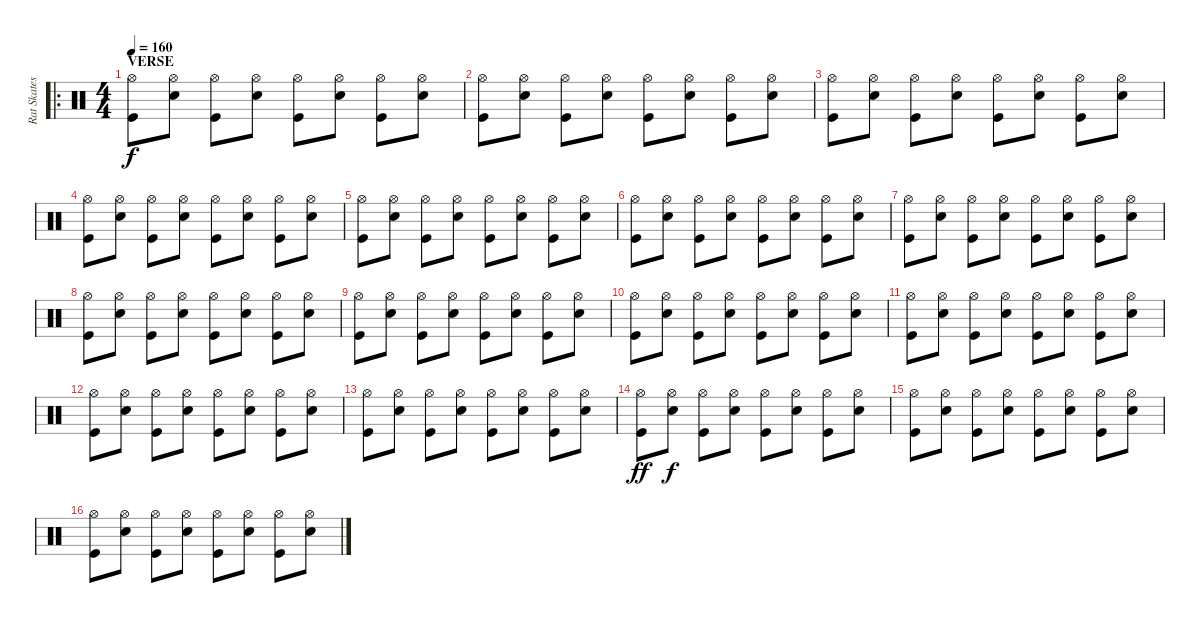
\track ("Rat Skates" "Rat Skates") {instrument percussion}
\staff {score}
\articulation defaults
\ro
\ts (4 4)
\section ("" "VERSE")
\tempo 160
\clef neutral
\ks c
("Hi-Hat (open)" "Kick (hit)").8{dy f} ("Hi-Hat (open)" "Snare (hit) 2").8 ("Hi-Hat (open)" "Kick (hit)").8 ("Hi-Hat (open)" "Snare (hit) 2").8 ("Hi-Hat (open)" "Kick (hit)").8 ("Hi-Hat (open)" "Snare (hit) 2").8 ("Hi-Hat (open)" "Kick (hit)").8 ("Hi-Hat (open)" "Snare (hit) 2").8 |
("Hi-Hat (open)" "Kick (hit)").8 ("Hi-Hat (open)" "Snare (hit) 2").8 ("Hi-Hat (open)" "Kick (hit)").8 ("Hi-Hat (open)" "Snare (hit) 2").8 ("Hi-Hat (open)" "Kick (hit)").8 ("Hi-Hat (open)" "Snare (hit) 2").8 ("Hi-Hat (open)" "Kick (hit)").8 ("Hi-Hat (open)" "Snare (hit) 2").8 |
("Hi-Hat (open)" "Kick (hit)").8 ("Hi-Hat (open)" "Snare (hit) 2").8 ("Hi-Hat (open)" "Kick (hit)").8 ("Hi-Hat (open)" "Snare (hit) 2").8 ("Hi-Hat (open)" "Kick (hit)").8 ("Hi-Hat (open)" "Snare (hit) 2").8 ("Hi-Hat (open)" "Kick (hit)").8 ("Hi-Hat (open)" "Snare (hit) 2").8 |
("Hi-Hat (open)" "Kick (hit)").8 ("Hi-Hat (open)" "Snare (hit) 2").8 ("Hi-Hat (open)" "Kick (hit)").8 ("Hi-Hat (open)" "Snare (hit) 2").8 ("Hi-Hat (open)" "Kick (hit)").8 ("Hi-Hat (open)" "Snare (hit) 2").8 ("Hi-Hat (open)" "Kick (hit)").8 ("Hi-Hat (open)" "Snare (hit) 2").8 |
("Hi-Hat (open)" "Kick (hit)").8 ("Hi-Hat (open)" "Snare (hit) 2").8 ("Hi-Hat (open)" "Kick (hit)").8 ("Hi-Hat (open)" "Snare (hit) 2").8 ("Hi-Hat (open)" "Kick (hit)").8 ("Hi-Hat (open)" "Snare (hit) 2").8 ("Hi-Hat (open)" "Kick (hit)").8 ("Hi-Hat (open)" "Snare (hit) 2").8 |
("Hi-Hat (open)" "Kick (hit)").8 ("Hi-Hat (open)" "Snare (hit) 2").8 ("Hi-Hat (open)" "Kick (hit)").8 ("Hi-Hat (open)" "Snare (hit) 2").8 ("Hi-Hat (open)" "Kick (hit)").8 ("Hi-Hat (open)" "Snare (hit) 2").8 ("Hi-Hat (open)" "Kick (hit)").8 ("Hi-Hat (open)" "Snare (hit) 2").8 |
("Hi-Hat (open)" "Kick (hit)").8 ("Hi-Hat (open)" "Snare (hit) 2").8 ("Hi-Hat (open)" "Kick (hit)").8 ("Hi-Hat (open)" "Snare (hit) 2").8 ("Hi-Hat (open)" "Kick (hit)").8 ("Hi-Hat (open)" "Snare (hit) 2").8 ("Hi-Hat (open)" "Kick (hit)").8 ("Hi-Hat (open)" "Snare (hit) 2").8 |
("Hi-Hat (open)" "Kick (hit)").8 ("Hi-Hat (open)" "Snare (hit) 2").8 ("Hi-Hat (open)" "Kick (hit)").8 ("Hi-Hat (open)" "Snare (hit) 2").8 ("Hi-Hat (open)" "Kick (hit)").8 ("Hi-Hat (open)" "Snare (hit) 2").8 ("Hi-Hat (open)" "Kick (hit)").8 ("Hi-Hat (open)" "Snare (hit) 2").8 |
("Hi-Hat (open)" "Kick (hit)").8 ("Hi-Hat (open)" "Snare (hit) 2").8 ("Hi-Hat (open)" "Kick (hit)").8 ("Hi-Hat (open)" "Snare (hit) 2").8 ("Hi-Hat (open)" "Kick (hit)").8 ("Hi-Hat (open)" "Snare (hit) 2").8 ("Hi-Hat (open)" "Kick (hit)").8 ("Hi-Hat (open)" "Snare (hit) 2").8 |
("Hi-Hat (open)" "Kick (hit)").8 ("Hi-Hat (open)" "Snare (hit) 2").8 ("Hi-Hat (open)" "Kick (hit)").8 ("Hi-Hat (open)" "Snare (hit) 2").8 ("Hi-Hat (open)" "Kick (hit)").8 ("Hi-Hat (open)" "Snare (hit) 2").8 ("Hi-Hat (open)" "Kick (hit)").8 ("Hi-Hat (open)" "Snare (hit) 2").8 |
("Hi-Hat (open)" "Kick (hit)").8 ("Hi-Hat (open)" "Snare (hit) 2").8 ("Hi-Hat (open)" "Kick (hit)").8 ("Hi-Hat (open)" "Snare (hit) 2").8 ("Hi-Hat (open)" "Kick (hit)").8 ("Hi-Hat (open)" "Snare (hit) 2").8 ("Hi-Hat (open)" "Kick (hit)").8 ("Hi-Hat (open)" "Snare (hit) 2").8 |
("Hi-Hat (open)" "Kick (hit)").8 ("Hi-Hat (open)" "Snare (hit) 2").8 ("Hi-Hat (open)" "Kick (hit)").8 ("Hi-Hat (open)" "Snare (hit) 2").8 ("Hi-Hat (open)" "Kick (hit)").8 ("Hi-Hat (open)" "Snare (hit) 2").8 ("Hi-Hat (open)" "Kick (hit)").8 ("Hi-Hat (open)" "Snare (hit) 2").8 |
("Hi-Hat (open)" "Kick (hit)").8 ("Hi-Hat (open)" "Snare (hit) 2").8 ("Hi-Hat (open)" "Kick (hit)").8 ("Hi-Hat (open)" "Snare (hit) 2").8 ("Hi-Hat (open)" "Kick (hit)").8 ("Hi-Hat (open)" "Snare (hit) 2").8 ("Hi-Hat (open)" "Kick (hit)").8 ("Hi-Hat (open)" "Snare (hit) 2").8 |
("Hi-Hat (open)" "Kick (hit)").8{dy ff} ("Hi-Hat (open)" "Snare (hit) 2").8{dy f} ("Hi-Hat (open)" "Kick (hit)").8 ("Hi-Hat (open)" "Snare (hit) 2").8 ("Hi-Hat (open)" "Kick (hit)").8 ("Hi-Hat (open)" "Snare (hit) 2").8 ("Hi-Hat (open)" "Kick (hit)").8 ("Hi-Hat (open)" "Snare (hit) 2").8 |
("Hi-Hat (open)" "Kick (hit)").8 ("Hi-Hat (open)" "Snare (hit) 2").8 ("Hi-Hat (open)" "Kick (hit)").8 ("Hi-Hat (open)" "Snare (hit) 2").8 ("Hi-Hat (open)" "Kick (hit)").8 ("Hi-Hat (open)" "Snare (hit) 2").8 ("Hi-Hat (open)" "Kick (hit)").8 ("Hi-Hat (open)" "Snare (hit) 2").8 |
("Hi-Hat (open)" "Kick (hit)").8 ("Hi-Hat (open)" "Snare (hit) 2").8 ("Hi-Hat (open)" "Kick (hit)").8 ("Hi-Hat (open)" "Snare (hit) 2").8 ("Hi-Hat (open)" "Kick (hit)").8 ("Hi-Hat (open)" "Snare (hit) 2").8 ("Hi-Hat (open)" "Kick (hit)").8 ("Hi-Hat (open)" "Snare (hit) 2").8
